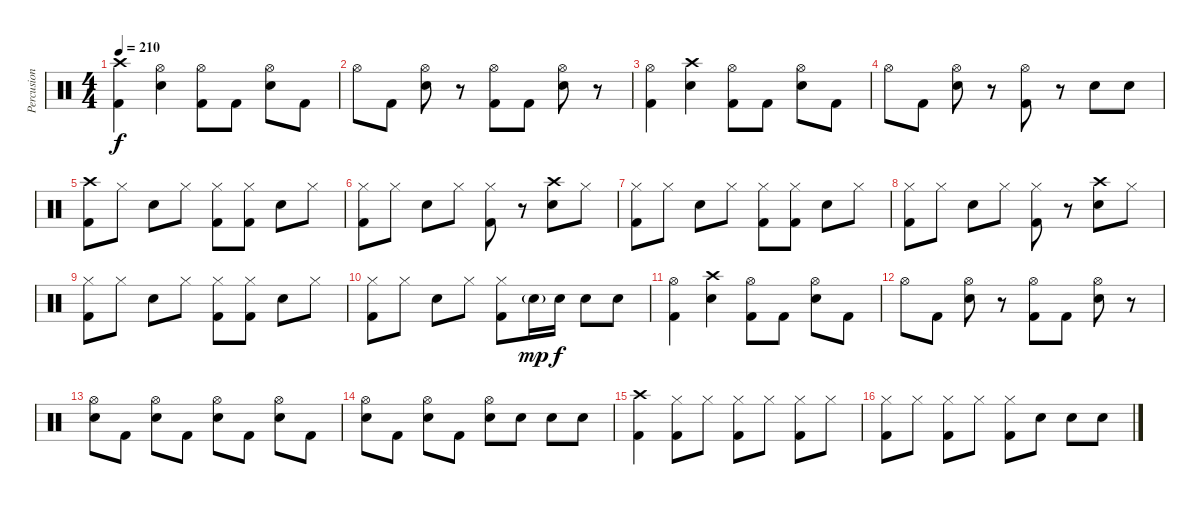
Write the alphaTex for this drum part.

\track ("Percusion" "Percusion") {instrument percussion}
\staff {score}
\articulation defaults
\ts (4 4)
\tempo 210
\clef neutral
\ks c
("Crash high (hit)" "Kick (hit) 2").4{dy f} ("Hi-Hat (open)" "Snare (hit) 2").4 ("Hi-Hat (open)" "Kick (hit) 2").8 "Kick (hit) 2".8 ("Hi-Hat (open)" "Snare (hit) 2").8 "Kick (hit) 2".8 |
"Hi-Hat (open)".8 "Kick (hit) 2".8 ("Hi-Hat (open)" "Snare (hit) 2").8 r.8 ("Hi-Hat (open)" "Kick (hit) 2").8 "Kick (hit) 2".8 ("Hi-Hat (open)" "Snare (hit) 2").8 r.8 |
("Hi-Hat (open)" "Kick (hit) 2").4 ("Crash high (hit)" "Snare (hit) 2").4 ("Hi-Hat (open)" "Kick (hit) 2").8 "Kick (hit) 2".8 ("Hi-Hat (open)" "Snare (hit) 2").8 "Kick (hit) 2".8 |
"Hi-Hat (open)".8 "Kick (hit) 2".8 ("Hi-Hat (open)" "Snare (hit) 2").8 r.8 ("Hi-Hat (open)" "Kick (hit) 2").8 r.8 "Snare (hit) 2".8 "Snare (hit) 2".8 |
("Crash high (hit)" "Kick (hit) 2").8 "Hi-Hat (closed)".8 "Snare (hit) 2".8 "Hi-Hat (closed)".8 ("Hi-Hat (closed)" "Kick (hit) 2").8 ("Hi-Hat (closed)" "Kick (hit) 2").8 "Snare (hit) 2".8 "Hi-Hat (closed)".8 |
("Hi-Hat (closed)" "Kick (hit) 2").8 "Hi-Hat (closed)".8 "Snare (hit) 2".8 "Hi-Hat (closed)".8 ("Hi-Hat (closed)" "Kick (hit) 2").8 r.8 ("Crash high (hit)" "Snare (hit) 2").8 "Hi-Hat (closed)".8 |
("Hi-Hat (closed)" "Kick (hit) 2").8 "Hi-Hat (closed)".8 "Snare (hit) 2".8 "Hi-Hat (closed)".8 ("Hi-Hat (closed)" "Kick (hit) 2").8 ("Hi-Hat (closed)" "Kick (hit) 2").8 "Snare (hit) 2".8 "Hi-Hat (closed)".8 |
("Hi-Hat (closed)" "Kick (hit) 2").8 "Hi-Hat (closed)".8 "Snare (hit) 2".8 "Hi-Hat (closed)".8 ("Hi-Hat (closed)" "Kick (hit) 2").8 r.8 ("Crash high (hit)" "Snare (hit) 2").8 "Hi-Hat (closed)".8 |
("Hi-Hat (closed)" "Kick (hit) 2").8 "Hi-Hat (closed)".8 "Snare (hit) 2".8 "Hi-Hat (closed)".8 ("Hi-Hat (closed)" "Kick (hit) 2").8 ("Hi-Hat (closed)" "Kick (hit) 2").8 "Snare (hit) 2".8 "Hi-Hat (closed)".8 |
("Hi-Hat (closed)" "Kick (hit) 2").8 "Hi-Hat (closed)".8 "Snare (hit) 2".8 "Hi-Hat (closed)".8 ("Hi-Hat (closed)" "Kick (hit) 2").8 "Snare (hit) 2"{g}.16{dy mp} "Snare (hit) 2".16{dy f} "Snare (hit) 2".8 "Snare (hit) 2".8 |
("Hi-Hat (open)" "Kick (hit) 2").4 ("Crash high (hit)" "Snare (hit) 2").4 ("Hi-Hat (open)" "Kick (hit) 2").8 "Kick (hit) 2".8 ("Hi-Hat (open)" "Snare (hit) 2").8 "Kick (hit) 2".8 |
"Hi-Hat (open)".8 "Kick (hit) 2".8 ("Hi-Hat (open)" "Snare (hit) 2").8 r.8 ("Hi-Hat (open)" "Kick (hit) 2").8 "Kick (hit) 2".8 ("Hi-Hat (open)" "Snare (hit) 2").8 r.8 |
("Hi-Hat (open)" "Snare (hit) 2").8 "Kick (hit) 2".8 ("Hi-Hat (open)" "Snare (hit) 2").8 "Kick (hit) 2".8 ("Hi-Hat (open)" "Snare (hit) 2").8 "Kick (hit) 2".8 ("Hi-Hat (open)" "Snare (hit) 2").8 "Kick (hit) 2".8 |
("Hi-Hat (open)" "Snare (hit) 2").8 "Kick (hit) 2".8 ("Hi-Hat (open)" "Snare (hit) 2").8 "Kick (hit) 2".8 ("Hi-Hat (open)" "Snare (hit) 2").8 "Snare (hit) 2".8 "Snare (hit) 2".8 "Snare (hit) 2".8 |
("Crash high (hit)" "Kick (hit) 2").4 ("Hi-Hat (closed)" "Kick (hit) 2").8 "Hi-Hat (closed)".8 ("Hi-Hat (closed)" "Kick (hit) 2").8 "Hi-Hat (closed)".8 ("Hi-Hat (closed)" "Kick (hit) 2").8 "Hi-Hat (closed)".8 |
("Hi-Hat (closed)" "Kick (hit) 2").8 "Hi-Hat (closed)".8 ("Hi-Hat (closed)" "Kick (hit) 2").8 "Hi-Hat (closed)".8 ("Hi-Hat (closed)" "Kick (hit) 2").8 "Snare (hit) 2".8 "Snare (hit) 2".8 "Snare (hit) 2".8
